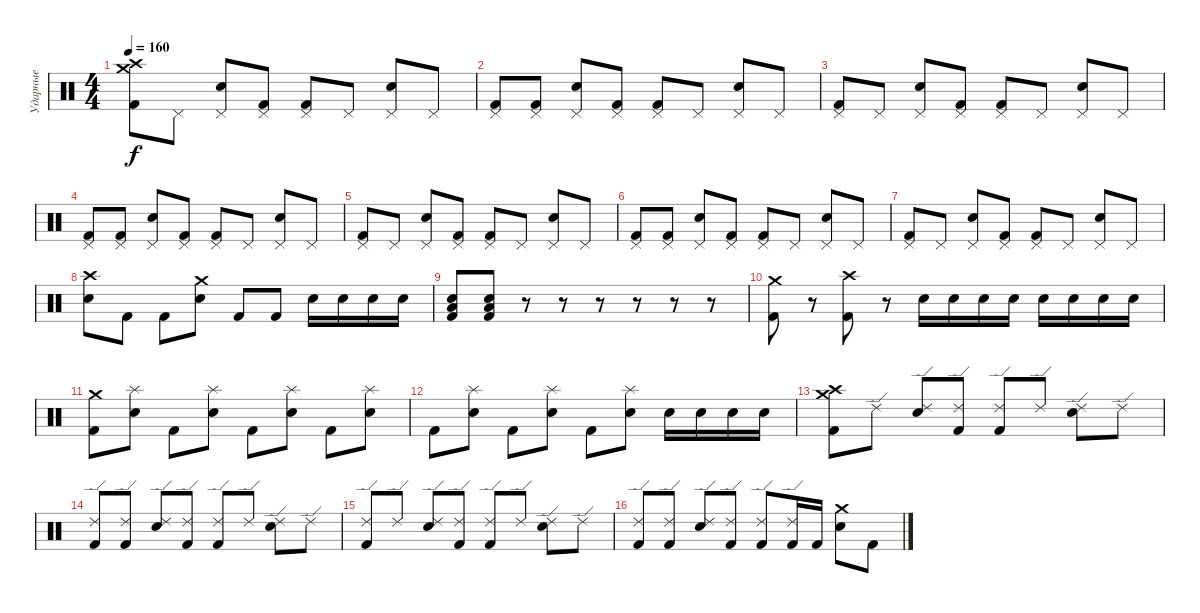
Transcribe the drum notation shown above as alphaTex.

\track ("Ударные" "Ударные") {instrument percussion}
\staff {score}
\articulation defaults
\ts (4 4)
\tempo 160
\clef neutral
\ks c
("Crash medium (hit)" "Crash high (hit)" "Kick (hit) 2").8{dy f} "Pedal Hi-Hat (hit)".8 ("Pedal Hi-Hat (hit)" "Electric Snare (hit)").8 ("Pedal Hi-Hat (hit)" "Kick (hit) 2").8 ("Pedal Hi-Hat (hit)" "Kick (hit) 2").8 "Pedal Hi-Hat (hit)".8 ("Pedal Hi-Hat (hit)" "Electric Snare (hit)").8 "Pedal Hi-Hat (hit)".8 |
("Pedal Hi-Hat (hit)" "Kick (hit) 2").8 ("Pedal Hi-Hat (hit)" "Kick (hit) 2").8 ("Pedal Hi-Hat (hit)" "Electric Snare (hit)").8 ("Pedal Hi-Hat (hit)" "Kick (hit) 2").8 ("Pedal Hi-Hat (hit)" "Kick (hit) 2").8 "Pedal Hi-Hat (hit)".8 ("Pedal Hi-Hat (hit)" "Electric Snare (hit)").8 "Pedal Hi-Hat (hit)".8 |
("Pedal Hi-Hat (hit)" "Kick (hit) 2").8 "Pedal Hi-Hat (hit)".8 ("Pedal Hi-Hat (hit)" "Electric Snare (hit)").8 ("Pedal Hi-Hat (hit)" "Kick (hit) 2").8 ("Pedal Hi-Hat (hit)" "Kick (hit) 2").8 "Pedal Hi-Hat (hit)".8 ("Pedal Hi-Hat (hit)" "Electric Snare (hit)").8 "Pedal Hi-Hat (hit)".8 |
("Pedal Hi-Hat (hit)" "Kick (hit) 2").8 ("Pedal Hi-Hat (hit)" "Kick (hit) 2").8 ("Pedal Hi-Hat (hit)" "Electric Snare (hit)").8 ("Pedal Hi-Hat (hit)" "Kick (hit) 2").8 ("Pedal Hi-Hat (hit)" "Kick (hit) 2").8 "Pedal Hi-Hat (hit)".8 ("Pedal Hi-Hat (hit)" "Electric Snare (hit)").8 "Pedal Hi-Hat (hit)".8 |
("Pedal Hi-Hat (hit)" "Kick (hit) 2").8 "Pedal Hi-Hat (hit)".8 ("Pedal Hi-Hat (hit)" "Electric Snare (hit)").8 ("Pedal Hi-Hat (hit)" "Kick (hit) 2").8 ("Pedal Hi-Hat (hit)" "Kick (hit) 2").8 "Pedal Hi-Hat (hit)".8 ("Pedal Hi-Hat (hit)" "Electric Snare (hit)").8 "Pedal Hi-Hat (hit)".8 |
("Pedal Hi-Hat (hit)" "Kick (hit) 2").8 ("Pedal Hi-Hat (hit)" "Kick (hit) 2").8 ("Pedal Hi-Hat (hit)" "Electric Snare (hit)").8 ("Pedal Hi-Hat (hit)" "Kick (hit) 2").8 ("Pedal Hi-Hat (hit)" "Kick (hit) 2").8 "Pedal Hi-Hat (hit)".8 ("Pedal Hi-Hat (hit)" "Electric Snare (hit)").8 "Pedal Hi-Hat (hit)".8 |
("Pedal Hi-Hat (hit)" "Kick (hit) 2").8 "Pedal Hi-Hat (hit)".8 ("Pedal Hi-Hat (hit)" "Electric Snare (hit)").8 ("Pedal Hi-Hat (hit)" "Kick (hit) 2").8 ("Pedal Hi-Hat (hit)" "Kick (hit) 2").8 "Pedal Hi-Hat (hit)".8 ("Pedal Hi-Hat (hit)" "Electric Snare (hit)").8 "Pedal Hi-Hat (hit)".8 |
("Crash high (hit)" "Electric Snare (hit)").8 "Kick (hit) 2".8 "Kick (hit) 2".8 ("Crash medium (hit)" "Electric Snare (hit)").8 "Kick (hit) 2".8 "Kick (hit) 2".8 "Electric Snare (hit)".16 "Electric Snare (hit)".16 "Electric Snare (hit)".16 "Electric Snare (hit)".16 |
("Kick (hit) 2" "Low Tom (hit)" "Electric Snare (hit)").8 ("Kick (hit) 2" "Low Tom (hit)" "Electric Snare (hit)").8 r.8 r.8 r.8 r.8 r.8 r.8 |
("Crash medium (hit)" "Kick (hit) 2").8 r.8 ("Crash high (hit)" "Kick (hit) 2").8 r.8 "Electric Snare (hit)".16 "Electric Snare (hit)".16 "Electric Snare (hit)".16 "Electric Snare (hit)".16 "Electric Snare (hit)".16 "Electric Snare (hit)".16 "Electric Snare (hit)".16 "Electric Snare (hit)".16 |
("Crash medium (hit)" "Kick (hit) 2").8 ("Splash (hit)" "Electric Snare (hit)").8 "Kick (hit) 2".8 ("Splash (hit)" "Electric Snare (hit)").8 "Kick (hit) 2".8 ("Splash (hit)" "Electric Snare (hit)").8 "Kick (hit) 2".8 ("Splash (hit)" "Electric Snare (hit)").8 |
"Kick (hit) 2".8 ("Splash (hit)" "Electric Snare (hit)").8 "Kick (hit) 2".8 ("Splash (hit)" "Electric Snare (hit)").8 "Kick (hit) 2".8 ("Splash (hit)" "Electric Snare (hit)").8 "Electric Snare (hit)".16 "Electric Snare (hit)".16 "Electric Snare (hit)".16 "Electric Snare (hit)".16 |
("Crash medium (hit)" "Crash high (hit)" "Kick (hit) 2").8 "Ride (edge) 2".8 ("Ride (edge) 2" "Electric Snare (hit)").8 ("Ride (edge) 2" "Kick (hit) 2").8 ("Ride (edge) 2" "Kick (hit) 2").8 "Ride (edge) 2".8 ("Ride (edge) 2" "Electric Snare (hit)").8 "Ride (edge) 2".8 |
("Ride (edge) 2" "Kick (hit) 2").8 ("Ride (edge) 2" "Kick (hit) 2").8 ("Ride (edge) 2" "Electric Snare (hit)").8 ("Ride (edge) 2" "Kick (hit) 2").8 ("Ride (edge) 2" "Kick (hit) 2").8 "Ride (edge) 2".8 ("Ride (edge) 2" "Electric Snare (hit)").8 "Ride (edge) 2".8 |
("Ride (edge) 2" "Kick (hit) 2").8 "Ride (edge) 2".8 ("Ride (edge) 2" "Electric Snare (hit)").8 ("Ride (edge) 2" "Kick (hit) 2").8 ("Ride (edge) 2" "Kick (hit) 2").8 "Ride (edge) 2".8 ("Ride (edge) 2" "Electric Snare (hit)").8 "Ride (edge) 2".8 |
("Ride (edge) 2" "Kick (hit) 2").8 ("Ride (edge) 2" "Kick (hit) 2").8 ("Ride (edge) 2" "Electric Snare (hit)").8 ("Ride (edge) 2" "Kick (hit) 2").8 ("Ride (edge) 2" "Kick (hit) 2").8 ("Ride (edge) 2" "Kick (hit) 2").16 "Kick (hit) 2".16 ("Crash medium (hit)" "Electric Snare (hit)").8 "Kick (hit) 2".8
